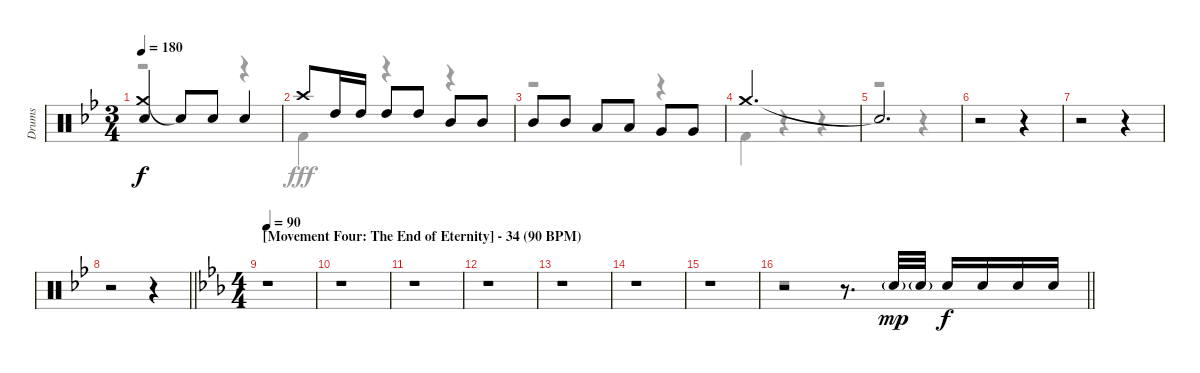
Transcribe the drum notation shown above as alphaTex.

\track ("Drums" "Drums") {instrument percussion}
\staff {score}
\articulation defaults
\voice
\ts (3 4)
\tempo 180
\clef neutral
\ks bb
("Crash medium (hit)" "Snare (hit) 2").4{dy f} "Snare (hit)"{t}.8 "Snare (hit) 2".8 "Snare (hit) 2".4 |
"Crash high (hit)".8 "High Tom (hit)".16 "High Tom (hit)".16 "High Tom (hit)".8 "High Tom (hit)".8 "Mid Tom (hit)".8 "Mid Tom (hit)".8 |
"Mid Tom (hit)".8 "Mid Tom (hit)".8 "Low Tom (hit)".8 "Low Tom (hit)".8 "Very Low Tom (hit)".8 "Very Low Tom (hit)".8 |
"Crash medium (hit)".2{d} |
"Snare (hit)"{t}.2{d} |
r.2 r.4 |
r.2 r.4 |
\barLineRight lightlight
r.2 r.4 |
\ts (4 4)
\section ("" "[Movement Four: The End of Eternity] - 34 (90 BPM)")
\tempo 90
\ks eb
r.1 |
r.1 |
r.1 |
r.1 |
r.1 |
r.1 |
r.1 |
\barLineRight lightlight
r.2 r.8{d} "Snare (hit) 2"{g}.32{dy mp} "Snare (hit) 2"{g}.32 "Snare (hit) 2".16{dy f} "Snare (hit) 2".16 "Snare (hit) 2".16 "Snare (hit) 2".16
\voice
\clef neutral
\ottava regular
\simile none
\ks bb
r.2{dy fff} r.4 |
"Kick (hit) 2".4 r.4 r.4 |
r.2 r.4 |
"Kick (hit) 2".4 r.4 r.4 |
r.2 r.4 |
r.2 r.4 |
r.2 r.4 |
\barLineRight lightlight
r.2 r.4 |
\ks eb
r.1 |
r.1 |
r.1 |
r.1 |
r.1 |
r.1 |
r.1 |
\barLineRight lightlight
r.1
